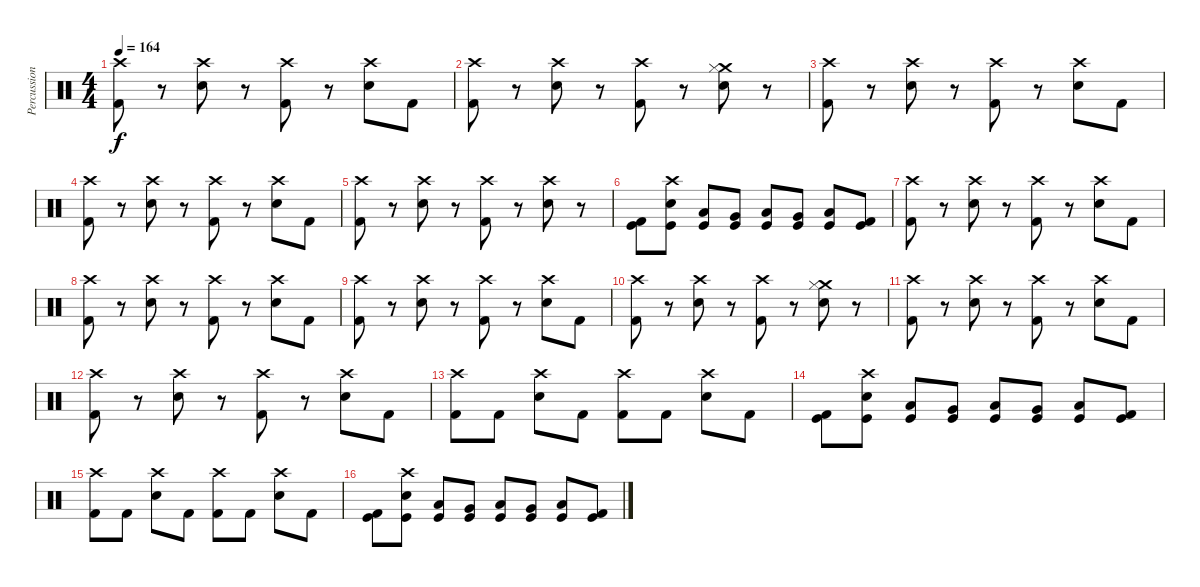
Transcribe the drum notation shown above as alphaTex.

\track ("Percussion" "Percussion") {instrument percussion}
\staff {score}
\articulation defaults
\ts (4 4)
\tempo 164
\clef neutral
\ks c
("Crash high (hit)" "Kick (hit) 2").8{dy f} r.8 ("Crash high (hit)" "Electric Snare (hit)").8 r.8 ("Crash high (hit)" "Kick (hit) 2").8 r.8 ("Crash high (hit)" "Electric Snare (hit)").8 "Kick (hit) 2".8 |
("Crash high (hit)" "Kick (hit) 2").8 r.8 ("Crash high (hit)" "Electric Snare (hit)").8 r.8 ("Crash high (hit)" "Kick (hit) 2").8 r.8 ("Crash medium (hit)" "Hi-Hat (closed)" "Electric Snare (hit)").8 r.8 |
("Crash high (hit)" "Kick (hit) 2").8 r.8 ("Crash high (hit)" "Electric Snare (hit)").8 r.8 ("Crash high (hit)" "Kick (hit) 2").8 r.8 ("Crash high (hit)" "Electric Snare (hit)").8 "Kick (hit) 2".8 |
("Crash high (hit)" "Kick (hit) 2").8 r.8 ("Crash high (hit)" "Electric Snare (hit)").8 r.8 ("Crash high (hit)" "Kick (hit) 2").8 r.8 ("Crash high (hit)" "Electric Snare (hit)").8 "Kick (hit) 2".8 |
("Crash high (hit)" "Kick (hit) 2").8 r.8 ("Crash high (hit)" "Electric Snare (hit)").8 r.8 ("Crash high (hit)" "Kick (hit) 2").8 r.8 ("Crash high (hit)" "Electric Snare (hit)").8 r.8 |
("Kick (hit) 2" "Kick (hit)").8 ("Crash high (hit)" "Electric Snare (hit)" "Kick (hit)").8 ("Low Tom (hit)" "Kick (hit)").8 ("Very Low Tom (hit)" "Kick (hit)").8 ("Low Floor Tom (hit)" "Kick (hit)").8 ("Very Low Tom (hit)" "Kick (hit)").8 ("Low Floor Tom (hit)" "Kick (hit)").8 ("Kick (hit) 2" "Kick (hit)").8 |
("Crash high (hit)" "Kick (hit) 2").8 r.8 ("Crash high (hit)" "Electric Snare (hit)").8 r.8 ("Crash high (hit)" "Kick (hit) 2").8 r.8 ("Crash high (hit)" "Electric Snare (hit)").8 "Kick (hit) 2".8 |
("Crash high (hit)" "Kick (hit) 2").8 r.8 ("Crash high (hit)" "Electric Snare (hit)").8 r.8 ("Crash high (hit)" "Kick (hit) 2").8 r.8 ("Crash high (hit)" "Electric Snare (hit)").8 "Kick (hit) 2".8 |
("Crash high (hit)" "Kick (hit) 2").8 r.8 ("Crash high (hit)" "Electric Snare (hit)").8 r.8 ("Crash high (hit)" "Kick (hit) 2").8 r.8 ("Crash high (hit)" "Electric Snare (hit)").8 "Kick (hit) 2".8 |
("Crash high (hit)" "Kick (hit) 2").8 r.8 ("Crash high (hit)" "Electric Snare (hit)").8 r.8 ("Crash high (hit)" "Kick (hit) 2").8 r.8 ("Crash medium (hit)" "Hi-Hat (closed)" "Electric Snare (hit)").8 r.8 |
("Crash high (hit)" "Kick (hit) 2").8 r.8 ("Crash high (hit)" "Electric Snare (hit)").8 r.8 ("Crash high (hit)" "Kick (hit) 2").8 r.8 ("Crash high (hit)" "Electric Snare (hit)").8 "Kick (hit) 2".8 |
("Crash high (hit)" "Kick (hit) 2").8 r.8 ("Crash high (hit)" "Electric Snare (hit)").8 r.8 ("Crash high (hit)" "Kick (hit) 2").8 r.8 ("Crash high (hit)" "Electric Snare (hit)").8 "Kick (hit) 2".8 |
("Crash high (hit)" "Kick (hit) 2").8 "Kick (hit) 2".8 ("Crash high (hit)" "Electric Snare (hit)").8 "Kick (hit) 2".8 ("Crash high (hit)" "Kick (hit) 2").8 "Kick (hit) 2".8 ("Crash high (hit)" "Electric Snare (hit)").8 "Kick (hit) 2".8 |
("Kick (hit) 2" "Kick (hit)").8 ("Crash high (hit)" "Electric Snare (hit)" "Kick (hit)").8 ("Low Tom (hit)" "Kick (hit)").8 ("Very Low Tom (hit)" "Kick (hit)").8 ("Low Floor Tom (hit)" "Kick (hit)").8 ("Very Low Tom (hit)" "Kick (hit)").8 ("Low Floor Tom (hit)" "Kick (hit)").8 ("Kick (hit) 2" "Kick (hit)").8 |
("Crash high (hit)" "Kick (hit) 2").8 "Kick (hit) 2".8 ("Crash high (hit)" "Electric Snare (hit)").8 "Kick (hit) 2".8 ("Crash high (hit)" "Kick (hit) 2").8 "Kick (hit) 2".8 ("Crash high (hit)" "Electric Snare (hit)").8 "Kick (hit) 2".8 |
("Kick (hit) 2" "Kick (hit)").8 ("Crash high (hit)" "Electric Snare (hit)" "Kick (hit)").8 ("Low Tom (hit)" "Kick (hit)").8 ("Very Low Tom (hit)" "Kick (hit)").8 ("Low Floor Tom (hit)" "Kick (hit)").8 ("Very Low Tom (hit)" "Kick (hit)").8 ("Low Floor Tom (hit)" "Kick (hit)").8 ("Kick (hit) 2" "Kick (hit)").8
